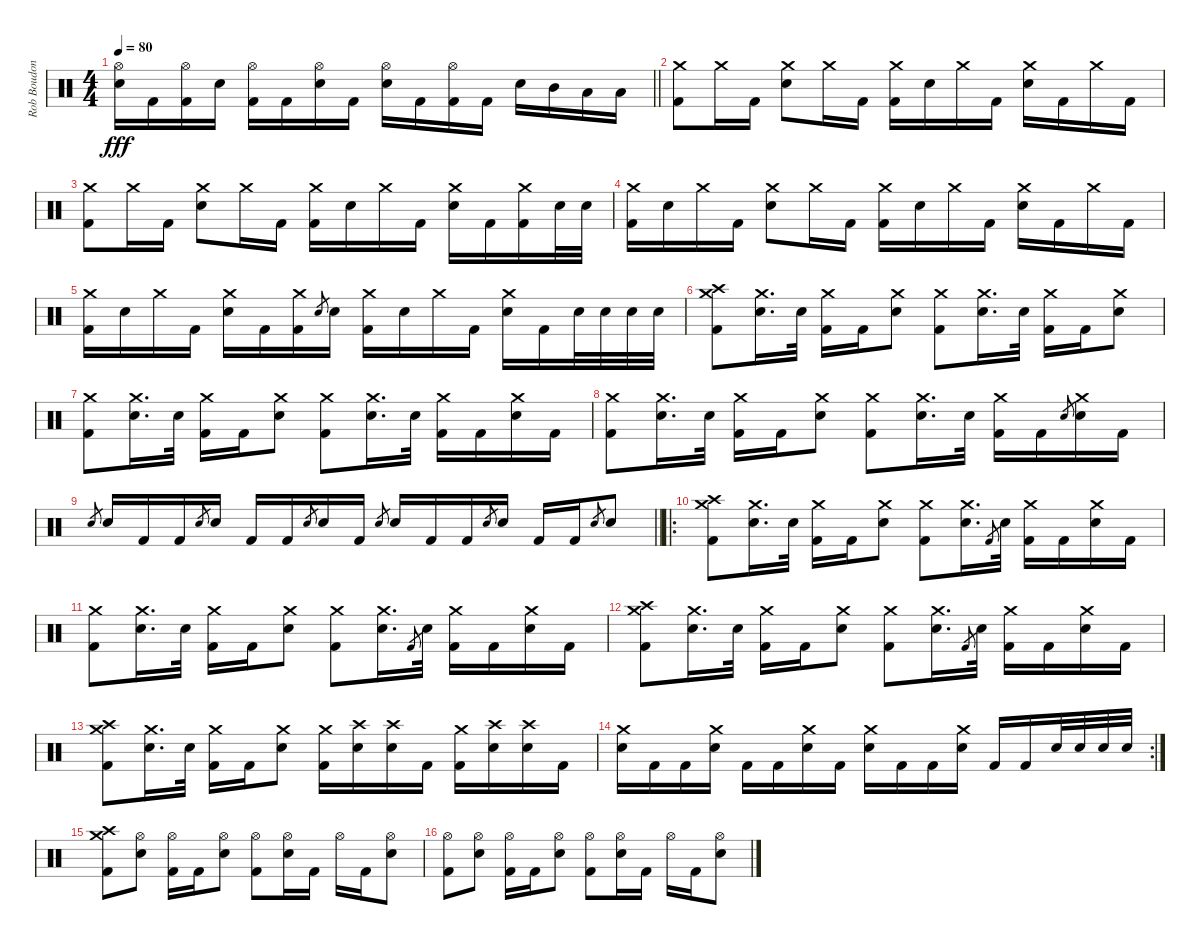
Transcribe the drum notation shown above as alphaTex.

\track ("Rob Boudon [Drums]" "Rob Boudon") {instrument percussion}
\staff {score}
\articulation defaults
\ts (4 4)
\tempo 80
\clef neutral
\barLineRight lightlight
\ks c
("Hi-Hat (open)" "Electric Snare (hit)").16{dy fff} "Kick (hit) 2".16 ("Hi-Hat (open)" "Kick (hit) 2").16 "Electric Snare (hit)".16 ("Hi-Hat (open)" "Kick (hit) 2").16 "Kick (hit) 2".16 ("Hi-Hat (open)" "Electric Snare (hit)").16 "Kick (hit) 2".16 ("Hi-Hat (open)" "Electric Snare (hit)").16 "Kick (hit) 2".16 ("Hi-Hat (open)" "Kick (hit) 2").16 "Kick (hit) 2".16 "Electric Snare (hit)".16 "Mid Tom (hit)".16 "Low Tom (hit)".16 "Low Tom (hit)".16 |
("Crash medium (hit)" "Kick (hit) 2").8 "Crash medium (hit)".16 "Kick (hit) 2".16 ("Crash medium (hit)" "Electric Snare (hit)").8 "Crash medium (hit)".16 "Kick (hit) 2".16 ("Crash medium (hit)" "Kick (hit) 2").16 "Electric Snare (hit)".16 "Crash medium (hit)".16 "Kick (hit) 2".16 ("Crash medium (hit)" "Electric Snare (hit)").16 "Kick (hit) 2".16 "Crash medium (hit)".16 "Kick (hit) 2".16 |
("Crash medium (hit)" "Kick (hit) 2").8 "Crash medium (hit)".16 "Kick (hit) 2".16 ("Crash medium (hit)" "Electric Snare (hit)").8 "Crash medium (hit)".16 "Kick (hit) 2".16 ("Crash medium (hit)" "Kick (hit) 2").16 "Electric Snare (hit)".16 "Crash medium (hit)".16 "Kick (hit) 2".16 ("Crash medium (hit)" "Electric Snare (hit)").16 "Kick (hit) 2".16 ("Crash medium (hit)" "Kick (hit) 2").16 "Electric Snare (hit)".32 "Electric Snare (hit)".32 |
("Crash medium (hit)" "Kick (hit) 2").16 "Electric Snare (hit)".16 "Crash medium (hit)".16 "Kick (hit) 2".16 ("Crash medium (hit)" "Electric Snare (hit)").8 "Crash medium (hit)".16 "Kick (hit) 2".16 ("Crash medium (hit)" "Kick (hit) 2").16 "Electric Snare (hit)".16 "Crash medium (hit)".16 "Kick (hit) 2".16 ("Crash medium (hit)" "Electric Snare (hit)").16 "Kick (hit) 2".16 "Crash medium (hit)".16 "Kick (hit) 2".16 |
("Crash medium (hit)" "Kick (hit) 2").16 "Electric Snare (hit)".16 "Crash medium (hit)".16 "Kick (hit) 2".16 ("Crash medium (hit)" "Electric Snare (hit)").16 "Kick (hit) 2".16 ("Crash medium (hit)" "Kick (hit) 2").16 "Electric Snare (hit)".8{gr} "Electric Snare (hit)".16 ("Crash medium (hit)" "Kick (hit) 2").16 "Electric Snare (hit)".16 "Crash medium (hit)".16 "Kick (hit) 2".16 ("Crash medium (hit)" "Electric Snare (hit)").16 "Kick (hit) 2".16 "Electric Snare (hit)".32 "Electric Snare (hit)".32 "Electric Snare (hit)".32 "Electric Snare (hit)".32 |
("Crash high (hit)" "Crash medium (hit)" "Kick (hit) 2").8 ("Crash medium (hit)" "Electric Snare (hit)").16{d} "Electric Snare (hit)".32 ("Crash medium (hit)" "Kick (hit) 2").16 "Kick (hit) 2".16 ("Crash medium (hit)" "Electric Snare (hit)").8 ("Crash medium (hit)" "Kick (hit) 2").8 ("Crash medium (hit)" "Electric Snare (hit)").16{d} "Electric Snare (hit)".32 ("Crash medium (hit)" "Kick (hit) 2").16 "Kick (hit) 2".16 ("Crash medium (hit)" "Electric Snare (hit)").8 |
("Crash medium (hit)" "Kick (hit) 2").8 ("Crash medium (hit)" "Electric Snare (hit)").16{d} "Electric Snare (hit)".32 ("Crash medium (hit)" "Kick (hit) 2").16 "Kick (hit) 2".16 ("Crash medium (hit)" "Electric Snare (hit)").8 ("Crash medium (hit)" "Kick (hit) 2").8 ("Crash medium (hit)" "Electric Snare (hit)").16{d} "Electric Snare (hit)".32 ("Crash medium (hit)" "Kick (hit) 2").16 "Kick (hit) 2".16 ("Crash medium (hit)" "Electric Snare (hit)").16 "Kick (hit) 2".16 |
("Crash medium (hit)" "Kick (hit) 2").8 ("Crash medium (hit)" "Electric Snare (hit)").16{d} "Electric Snare (hit)".32 ("Crash medium (hit)" "Kick (hit) 2").16 "Kick (hit) 2".16 ("Crash medium (hit)" "Electric Snare (hit)").8 ("Crash medium (hit)" "Kick (hit) 2").8 ("Crash medium (hit)" "Electric Snare (hit)").16{d} "Electric Snare (hit)".32 ("Crash medium (hit)" "Kick (hit) 2").16 "Kick (hit) 2".16 "Electric Snare (hit)"{h}.8{gr} ("Crash medium (hit)" "Electric Snare (hit)").16 "Kick (hit) 2".16 |
\barLineRight lightlight "Electric Snare (hit)".8{gr} "Electric Snare (hit)".16 "Kick (hit) 2".16 "Kick (hit) 2".16 "Electric Snare (hit)".8{gr} "Electric Snare (hit)".16 "Kick (hit) 2".16 "Kick (hit) 2".16 "Electric Snare (hit)".8{gr} "Electric Snare (hit)".16 "Kick (hit) 2".16 "Electric Snare (hit)".8{gr} "Electric Snare (hit)".16 "Kick (hit) 2".16 "Kick (hit) 2".16 "Electric Snare (hit)".8{gr} "Electric Snare (hit)".16 "Kick (hit) 2".16 "Kick (hit) 2".16 "Electric Snare (hit)".8{gr} "Electric Snare (hit)".8
|
\ro
("Crash high (hit)" "Crash medium (hit)" "Kick (hit) 2").8 ("Crash medium (hit)" "Electric Snare (hit)").16{d} "Electric Snare (hit)".32 ("Crash medium (hit)" "Kick (hit) 2").16 "Kick (hit) 2".16 ("Crash medium (hit)" "Electric Snare (hit)").8 ("Crash medium (hit)" "Kick (hit) 2").8 ("Crash medium (hit)" "Electric Snare (hit)").16{d} "Kick (hit) 2".8{gr} "Electric Snare (hit)".32 ("Crash medium (hit)" "Kick (hit) 2").16 "Kick (hit) 2".16 ("Crash medium (hit)" "Electric Snare (hit)").16 "Kick (hit) 2".16 |
("Crash medium (hit)" "Kick (hit) 2").8 ("Crash medium (hit)" "Electric Snare (hit)").16{d} "Electric Snare (hit)".32 ("Crash medium (hit)" "Kick (hit) 2").16 "Kick (hit) 2".16 ("Crash medium (hit)" "Electric Snare (hit)").8 ("Crash medium (hit)" "Kick (hit) 2").8 ("Crash medium (hit)" "Electric Snare (hit)").16{d} "Kick (hit) 2".8{gr} "Electric Snare (hit)".32 ("Crash medium (hit)" "Kick (hit) 2").16 "Kick (hit) 2".16 ("Crash medium (hit)" "Electric Snare (hit)").16 "Kick (hit) 2".16 |
("Crash high (hit)" "Crash medium (hit)" "Kick (hit) 2").8 ("Crash medium (hit)" "Electric Snare (hit)").16{d} "Electric Snare (hit)".32 ("Crash medium (hit)" "Kick (hit) 2").16 "Kick (hit) 2".16 ("Crash medium (hit)" "Electric Snare (hit)").8 ("Crash medium (hit)" "Kick (hit) 2").8 ("Crash medium (hit)" "Electric Snare (hit)").16{d} "Kick (hit) 2".8{gr} "Electric Snare (hit)".32 ("Crash medium (hit)" "Kick (hit) 2").16 "Kick (hit) 2".16 ("Crash medium (hit)" "Electric Snare (hit)").16 "Kick (hit) 2".16 |
("Crash high (hit)" "Crash medium (hit)" "Kick (hit) 2").8 ("Crash medium (hit)" "Electric Snare (hit)").16{d} "Electric Snare (hit)".32 ("Crash medium (hit)" "Kick (hit) 2").16 "Kick (hit) 2".16 ("Crash medium (hit)" "Electric Snare (hit)").8 ("Crash medium (hit)" "Kick (hit) 2").16 ("Crash high (hit)" "Electric Snare (hit)").16 ("Crash high (hit)" "Electric Snare (hit)").16 "Kick (hit) 2".16 ("Crash medium (hit)" "Kick (hit) 2").16 ("Crash high (hit)" "Electric Snare (hit)").16 ("Crash high (hit)" "Electric Snare (hit)").16 "Kick (hit) 2".16 |
\rc 2
("Crash medium (hit)" "Electric Snare (hit)").16 "Kick (hit) 2".16 "Kick (hit) 2".16 ("Crash medium (hit)" "Electric Snare (hit)").16 "Kick (hit) 2".16 "Kick (hit) 2".16 ("Crash medium (hit)" "Electric Snare (hit)").16 "Kick (hit) 2".16 ("Crash medium (hit)" "Electric Snare (hit)").16 "Kick (hit) 2".16 "Kick (hit) 2".16 ("Crash medium (hit)" "Electric Snare (hit)").16 "Kick (hit) 2".16 "Kick (hit) 2".16 "Electric Snare (hit)".32 "Electric Snare (hit)".32 "Electric Snare (hit)".32 "Electric Snare (hit)".32 |
("Crash medium (hit)" "Crash high (hit)" "Kick (hit) 2").8 ("Hi-Hat (open)" "Electric Snare (hit)").8 ("Hi-Hat (open)" "Kick (hit) 2").16 "Kick (hit) 2".16 ("Hi-Hat (open)" "Electric Snare (hit)").8 ("Hi-Hat (open)" "Kick (hit) 2").8 ("Hi-Hat (open)" "Electric Snare (hit)").16 "Kick (hit) 2".16 "Hi-Hat (open)".16 "Kick (hit) 2".16 ("Hi-Hat (open)" "Electric Snare (hit)").8 |
("Hi-Hat (open)" "Kick (hit) 2").8 ("Hi-Hat (open)" "Electric Snare (hit)").8 ("Hi-Hat (open)" "Kick (hit) 2").16 "Kick (hit) 2".16 ("Hi-Hat (open)" "Electric Snare (hit)").8 ("Hi-Hat (open)" "Kick (hit) 2").8 ("Hi-Hat (open)" "Electric Snare (hit)").16 "Kick (hit) 2".16 "Hi-Hat (open)".16 "Kick (hit) 2".16 ("Hi-Hat (open)" "Electric Snare (hit)").8
